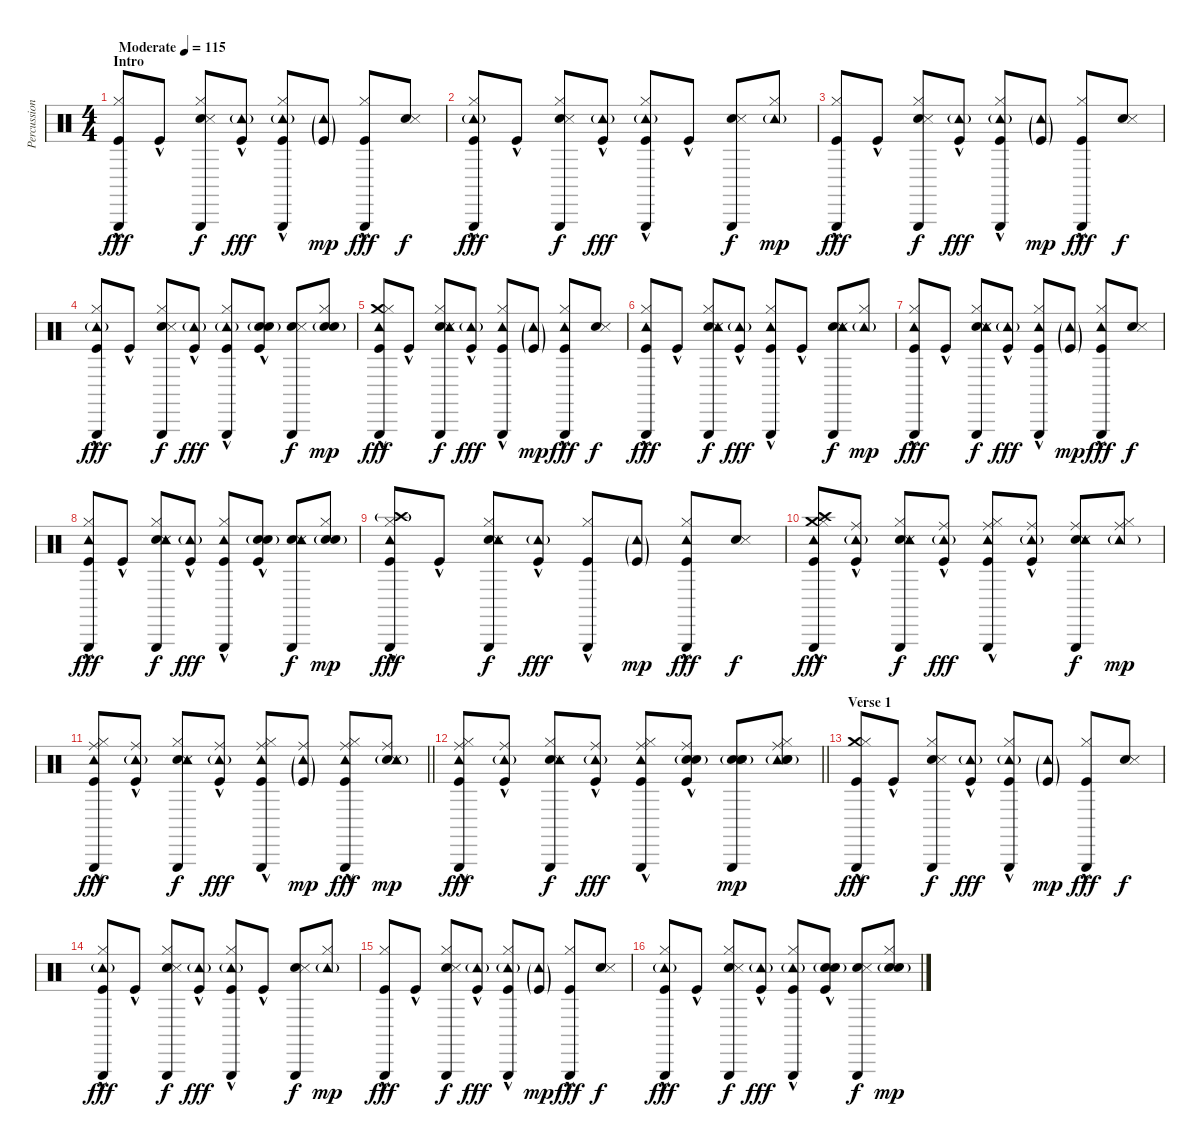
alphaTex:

\track ("Percussion" "Percussion") {instrument percussion}
\staff {score}
\articulation defaults
\ts (4 4)
\section ("" "Intro")
\tempo (115 "Moderate")
\clef neutral
\ks c
("Triangle (hit)" "Hi-Hat (closed)" "Kick (hit)"{hac}).8{dy fff} "Kick (hit)"{hac}.8 ("Hand Clap (hit)" "Snare (side stick) 3" "Hi-Hat (closed)" "Triangle (hit)").8{dy f} ("Tambourine (hit)"{g} "Kick (hit)"{hac}).8{dy fff} ("Triangle (hit)" "Hi-Hat (closed)" "Tambourine (hit)"{g} "Kick (hit)"{hac}).8 ("Tambourine (hit)"{g} "Kick (hit)"{g}).8{dy mp} ("Triangle (hit)" "Hi-Hat (closed)" "Kick (hit)"{hac}).8{dy fff} ("Hand Clap (hit)" "Snare (side stick) 3").8{dy f} |
("Triangle (hit)" "Hi-Hat (closed)" "Tambourine (hit)"{g} "Kick (hit)"{hac}).8{dy fff} "Kick (hit)"{hac}.8 ("Hand Clap (hit)" "Snare (side stick) 3" "Hi-Hat (closed)" "Triangle (hit)").8{dy f} ("Tambourine (hit)"{g} "Kick (hit)"{hac}).8{dy fff} ("Triangle (hit)" "Hi-Hat (closed)" "Tambourine (hit)"{g} "Kick (hit)"{hac}).8 "Kick (hit)"{hac}.8 ("Hand Clap (hit)" "Snare (side stick) 3" "Triangle (hit)").8{dy f} ("Hi-Hat (closed)" "Tambourine (hit)"{g}).8{dy mp} |
("Triangle (hit)" "Hi-Hat (closed)" "Kick (hit)"{hac}).8{dy fff} "Kick (hit)"{hac}.8 ("Hand Clap (hit)" "Snare (side stick) 3" "Hi-Hat (closed)" "Triangle (hit)").8{dy f} ("Tambourine (hit)"{g} "Kick (hit)"{hac}).8{dy fff} ("Triangle (hit)" "Hi-Hat (closed)" "Tambourine (hit)"{g} "Kick (hit)"{hac}).8 ("Tambourine (hit)"{g} "Kick (hit)"{g}).8{dy mp} ("Triangle (hit)" "Hi-Hat (closed)" "Kick (hit)"{hac}).8{dy fff} ("Hand Clap (hit)" "Snare (side stick) 3").8{dy f} |
("Triangle (hit)" "Hi-Hat (closed)" "Tambourine (hit)"{g} "Kick (hit)"{hac}).8{dy fff} "Kick (hit)"{hac}.8 ("Hand Clap (hit)" "Snare (side stick) 3" "Hi-Hat (closed)" "Triangle (hit)").8{dy f} ("Tambourine (hit)"{g} "Kick (hit)"{hac}).8{dy fff} ("Triangle (hit)" "Hi-Hat (closed)" "Tambourine (hit)"{g} "Kick (hit)"{hac}).8 ("Snare (hit) 2" "Electric Snare (hit)"{g} "Kick (hit)"{hac}).8 ("Hand Clap (hit)" "Snare (side stick) 3" "Triangle (hit)").8{dy f} ("Hi-Hat (closed)" "Snare (hit) 2" "Electric Snare (hit)"{g}).8{dy mp} |
("Crash medium (hit)"{hac} "Triangle (hit)" "Hi-Hat (closed)" "Tambourine (hit)" "Kick (hit)"{hac}).8{dy fff} "Kick (hit)"{hac}.8 ("Hand Clap (hit)" "Snare (side stick) 3" "Hi-Hat (closed)" "Tambourine (hit)" "Triangle (hit)").8{dy f} ("Tambourine (hit)"{g} "Kick (hit)"{hac}).8{dy fff} ("Triangle (hit)" "Hi-Hat (closed)" "Tambourine (hit)" "Kick (hit)"{hac}).8 ("Tambourine (hit)"{g} "Kick (hit)"{g}).8{dy mp} ("Triangle (hit)" "Hi-Hat (closed)" "Tambourine (hit)" "Kick (hit)"{hac}).8{dy fff} ("Hand Clap (hit)" "Snare (side stick) 3").8{dy f} |
("Triangle (hit)" "Hi-Hat (closed)" "Tambourine (hit)" "Kick (hit)"{hac}).8{dy fff} "Kick (hit)"{hac}.8 ("Hand Clap (hit)" "Snare (side stick) 3" "Hi-Hat (closed)" "Tambourine (hit)" "Triangle (hit)").8{dy f} ("Tambourine (hit)"{g} "Kick (hit)"{hac}).8{dy fff} ("Triangle (hit)" "Hi-Hat (closed)" "Tambourine (hit)" "Kick (hit)"{hac}).8 "Kick (hit)"{hac}.8 ("Hand Clap (hit)" "Snare (side stick) 3" "Triangle (hit)" "Tambourine (hit)").8{dy f} ("Hi-Hat (closed)" "Tambourine (hit)"{g}).8{dy mp} |
("Triangle (hit)" "Hi-Hat (closed)" "Tambourine (hit)" "Kick (hit)"{hac}).8{dy fff} "Kick (hit)"{hac}.8 ("Hand Clap (hit)" "Snare (side stick) 3" "Hi-Hat (closed)" "Tambourine (hit)" "Triangle (hit)").8{dy f} ("Tambourine (hit)"{g} "Kick (hit)"{hac}).8{dy fff} ("Triangle (hit)" "Hi-Hat (closed)" "Tambourine (hit)" "Kick (hit)"{hac}).8 ("Tambourine (hit)"{g} "Kick (hit)"{g}).8{dy mp} ("Triangle (hit)" "Hi-Hat (closed)" "Tambourine (hit)" "Kick (hit)"{hac}).8{dy fff} ("Hand Clap (hit)" "Snare (side stick) 3").8{dy f} |
("Triangle (hit)" "Hi-Hat (closed)" "Tambourine (hit)" "Kick (hit)"{hac}).8{dy fff} "Kick (hit)"{hac}.8 ("Hand Clap (hit)" "Snare (side stick) 3" "Hi-Hat (closed)" "Tambourine (hit)" "Triangle (hit)").8{dy f} ("Tambourine (hit)"{g} "Kick (hit)"{hac}).8{dy fff} ("Triangle (hit)" "Hi-Hat (closed)" "Tambourine (hit)" "Kick (hit)"{hac}).8 ("Snare (hit) 2" "Electric Snare (hit)"{g} "Kick (hit)"{hac}).8 ("Hand Clap (hit)" "Snare (side stick) 3" "Triangle (hit)" "Tambourine (hit)").8{dy f} ("Hi-Hat (closed)" "Snare (hit) 2" "Electric Snare (hit)"{g}).8{dy mp} |
("Crash high (hit)"{g} "Triangle (hit)" "Hi-Hat (closed)" "Tambourine (hit)" "Kick (hit)"{hac}).8{dy fff} "Kick (hit)"{hac}.8 ("Hand Clap (hit)" "Snare (side stick) 3" "Hi-Hat (closed)" "Tambourine (hit)" "Triangle (hit)").8{dy f} ("Tambourine (hit)"{g} "Kick (hit)"{hac}).8{dy fff} ("Triangle (hit)" "Hi-Hat (closed)" "Kick (hit)"{hac}).8 ("Tambourine (hit)"{g} "Kick (hit)"{g}).8{dy mp} ("Triangle (hit)" "Hi-Hat (closed)" "Tambourine (hit)" "Kick (hit)"{hac}).8{dy fff} ("Hand Clap (hit)" "Snare (side stick) 3").8{dy f} |
("Crash high (hit)" "Crash medium (hit)"{hac} "Hi-Hat (closed)" "Tambourine (hit)" "Triangle (hit)" "Kick (hit)"{hac}).8{dy fff} ("Ride (middle)" "Tambourine (hit)"{g} "Kick (hit)"{hac}).8 ("Hand Clap (hit)" "Snare (side stick) 3" "Hi-Hat (closed)" "Tambourine (hit)" "Triangle (hit)").8{dy f} ("Ride (middle)" "Tambourine (hit)"{g} "Kick (hit)"{hac}).8{dy fff} ("Ride (middle)" "Hi-Hat (closed)" "Tambourine (hit)" "Triangle (hit)" "Kick (hit)"{hac}).8 ("Ride (middle)" "Tambourine (hit)"{g} "Kick (hit)"{hac}).8 ("Hand Clap (hit)" "Snare (side stick) 3" "Ride (middle)" "Tambourine (hit)" "Triangle (hit)").8{dy f} ("Ride (middle)" "Hi-Hat (closed)" "Tambourine (hit)"{g}).8{dy mp} |
\barLineRight lightlight
("Ride (middle)" "Hi-Hat (closed)" "Tambourine (hit)" "Triangle (hit)" "Kick (hit)"{hac}).8{dy fff} ("Ride (middle)" "Tambourine (hit)"{g} "Kick (hit)"{hac}).8 ("Hand Clap (hit)" "Snare (side stick) 3" "Hi-Hat (closed)" "Tambourine (hit)" "Triangle (hit)").8{dy f} ("Ride (middle)" "Tambourine (hit)"{g} "Kick (hit)"{hac}).8{dy fff} ("Ride (middle)" "Hi-Hat (closed)" "Tambourine (hit)" "Triangle (hit)" "Kick (hit)"{hac}).8 ("Ride (middle)" "Tambourine (hit)"{g} "Kick (hit)"{g}).8{dy mp} ("Ride (middle)" "Hi-Hat (closed)" "Tambourine (hit)" "Triangle (hit)" "Kick (hit)"{hac}).8{dy fff} ("Hand Clap (hit)" "Snare (side stick) 3" "Ride (middle)" "Tambourine (hit)"{g}).8{dy mp} |
\barLineRight lightlight
("Ride (middle)" "Hi-Hat (closed)" "Tambourine (hit)" "Triangle (hit)" "Kick (hit)"{hac}).8{dy fff} ("Ride (middle)" "Tambourine (hit)"{g} "Kick (hit)"{hac}).8 ("Hand Clap (hit)" "Snare (side stick) 3" "Hi-Hat (closed)" "Tambourine (hit)" "Triangle (hit)").8{dy f} ("Ride (middle)" "Tambourine (hit)"{g} "Kick (hit)"{hac}).8{dy fff} ("Ride (middle)" "Hi-Hat (closed)" "Tambourine (hit)" "Triangle (hit)" "Kick (hit)"{hac}).8 ("Ride (middle)" "Snare (hit) 2" "Electric Snare (hit)"{g} "Kick (hit)"{hac}).8 ("Hand Clap (hit)" "Snare (side stick) 3" "Triangle (hit)" "Snare (hit) 2" "Electric Snare (hit)"{g}).8{dy mp} ("Ride (middle)" "Tambourine (hit)" "Hi-Hat (closed)" "Snare (hit) 2" "Electric Snare (hit)"{g}).8 |
\section ("" "Verse 1")
("Triangle (hit)" "Crash medium (hit)" "Hi-Hat (closed)" "Kick (hit)"{hac}).8{dy fff} "Kick (hit)"{hac}.8 ("Hand Clap (hit)" "Snare (side stick) 3" "Hi-Hat (closed)" "Triangle (hit)").8{dy f} ("Tambourine (hit)"{g} "Kick (hit)"{hac}).8{dy fff} ("Triangle (hit)" "Hi-Hat (closed)" "Tambourine (hit)"{g} "Kick (hit)"{hac}).8 ("Tambourine (hit)"{g} "Kick (hit)"{g}).8{dy mp} ("Triangle (hit)" "Hi-Hat (closed)" "Kick (hit)"{hac}).8{dy fff} ("Hand Clap (hit)" "Snare (side stick) 3").8{dy f} |
("Triangle (hit)" "Hi-Hat (closed)" "Tambourine (hit)"{g} "Kick (hit)"{hac}).8{dy fff} "Kick (hit)"{hac}.8 ("Hand Clap (hit)" "Snare (side stick) 3" "Hi-Hat (closed)" "Triangle (hit)").8{dy f} ("Tambourine (hit)"{g} "Kick (hit)"{hac}).8{dy fff} ("Triangle (hit)" "Hi-Hat (closed)" "Tambourine (hit)"{g} "Kick (hit)"{hac}).8 "Kick (hit)"{hac}.8 ("Hand Clap (hit)" "Snare (side stick) 3" "Triangle (hit)").8{dy f} ("Hi-Hat (closed)" "Tambourine (hit)"{g}).8{dy mp} |
("Triangle (hit)" "Hi-Hat (closed)" "Kick (hit)"{hac}).8{dy fff} "Kick (hit)"{hac}.8 ("Hand Clap (hit)" "Snare (side stick) 3" "Hi-Hat (closed)" "Triangle (hit)").8{dy f} ("Tambourine (hit)"{g} "Kick (hit)"{hac}).8{dy fff} ("Triangle (hit)" "Hi-Hat (closed)" "Tambourine (hit)"{g} "Kick (hit)"{hac}).8 ("Tambourine (hit)"{g} "Kick (hit)"{g}).8{dy mp} ("Triangle (hit)" "Hi-Hat (closed)" "Kick (hit)"{hac}).8{dy fff} ("Hand Clap (hit)" "Snare (side stick) 3").8{dy f} |
("Triangle (hit)" "Hi-Hat (closed)" "Tambourine (hit)"{g} "Kick (hit)"{hac}).8{dy fff} "Kick (hit)"{hac}.8 ("Hand Clap (hit)" "Snare (side stick) 3" "Hi-Hat (closed)" "Triangle (hit)").8{dy f} ("Tambourine (hit)"{g} "Kick (hit)"{hac}).8{dy fff} ("Triangle (hit)" "Hi-Hat (closed)" "Tambourine (hit)"{g} "Kick (hit)"{hac}).8 ("Snare (hit) 2" "Electric Snare (hit)"{g} "Kick (hit)"{hac}).8 ("Hand Clap (hit)" "Snare (side stick) 3" "Triangle (hit)").8{dy f} ("Hi-Hat (closed)" "Snare (hit) 2" "Electric Snare (hit)"{g}).8{dy mp}
